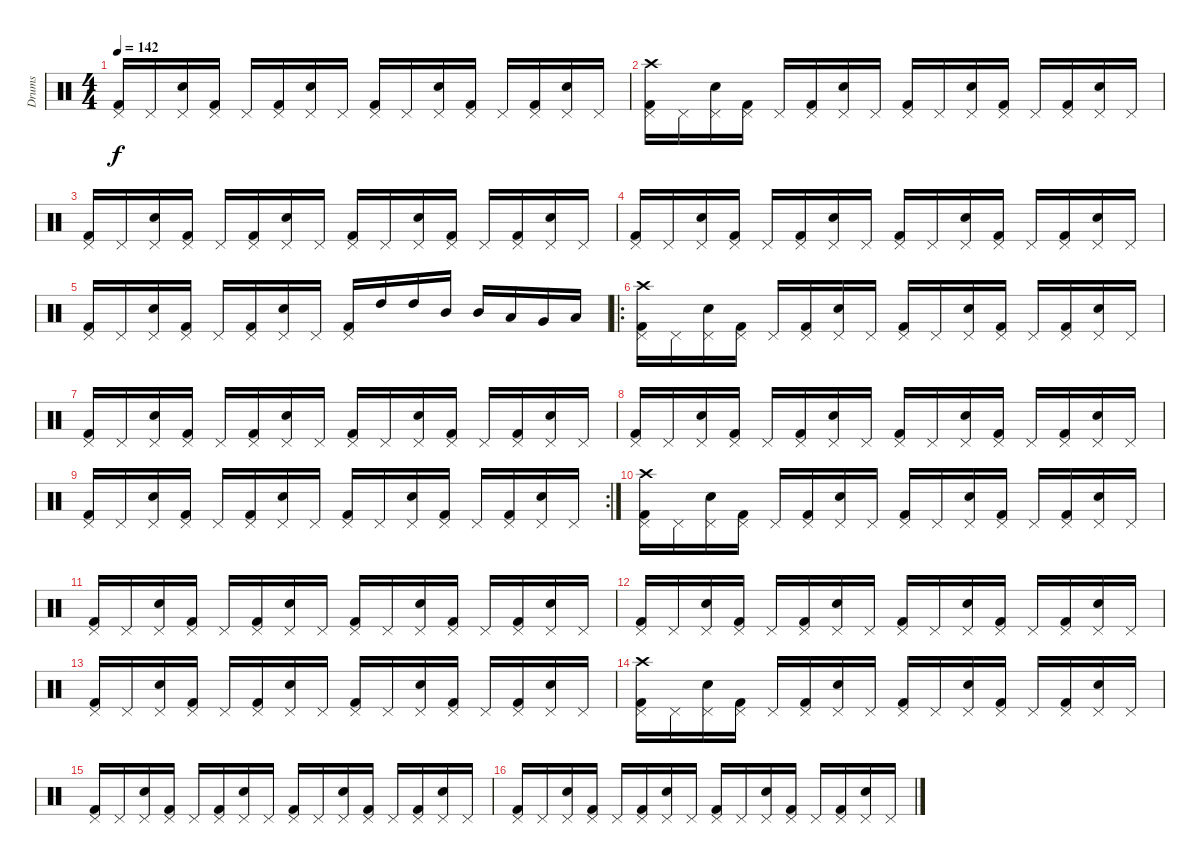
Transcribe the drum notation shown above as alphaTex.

\track ("Drums" "Drums") {instrument percussion}
\staff {score}
\articulation defaults
\ts (4 4)
\tempo 142
\clef neutral
\ks c
("Kick (hit) 2" "Pedal Hi-Hat (hit)").16{dy f} "Pedal Hi-Hat (hit)".16 ("Snare (hit) 2" "Pedal Hi-Hat (hit)").16 ("Kick (hit) 2" "Pedal Hi-Hat (hit)").16 "Pedal Hi-Hat (hit)".16 ("Kick (hit) 2" "Pedal Hi-Hat (hit)").16 ("Snare (hit) 2" "Pedal Hi-Hat (hit)").16 "Pedal Hi-Hat (hit)".16 ("Kick (hit) 2" "Pedal Hi-Hat (hit)").16 "Pedal Hi-Hat (hit)".16 ("Snare (hit) 2" "Pedal Hi-Hat (hit)").16 ("Kick (hit) 2" "Pedal Hi-Hat (hit)").16 "Pedal Hi-Hat (hit)".16 ("Kick (hit) 2" "Pedal Hi-Hat (hit)").16 ("Snare (hit) 2" "Pedal Hi-Hat (hit)").16 "Pedal Hi-Hat (hit)".16 |
("Kick (hit) 2" "Pedal Hi-Hat (hit)" "Crash high (hit)").16 "Pedal Hi-Hat (hit)".16 ("Snare (hit) 2" "Pedal Hi-Hat (hit)").16 ("Kick (hit) 2" "Pedal Hi-Hat (hit)").16 "Pedal Hi-Hat (hit)".16 ("Kick (hit) 2" "Pedal Hi-Hat (hit)").16 ("Snare (hit) 2" "Pedal Hi-Hat (hit)").16 "Pedal Hi-Hat (hit)".16 ("Kick (hit) 2" "Pedal Hi-Hat (hit)").16 "Pedal Hi-Hat (hit)".16 ("Snare (hit) 2" "Pedal Hi-Hat (hit)").16 ("Kick (hit) 2" "Pedal Hi-Hat (hit)").16 "Pedal Hi-Hat (hit)".16 ("Kick (hit) 2" "Pedal Hi-Hat (hit)").16 ("Snare (hit) 2" "Pedal Hi-Hat (hit)").16 "Pedal Hi-Hat (hit)".16 |
("Kick (hit) 2" "Pedal Hi-Hat (hit)").16 "Pedal Hi-Hat (hit)".16 ("Snare (hit) 2" "Pedal Hi-Hat (hit)").16 ("Kick (hit) 2" "Pedal Hi-Hat (hit)").16 "Pedal Hi-Hat (hit)".16 ("Kick (hit) 2" "Pedal Hi-Hat (hit)").16 ("Snare (hit) 2" "Pedal Hi-Hat (hit)").16 "Pedal Hi-Hat (hit)".16 ("Kick (hit) 2" "Pedal Hi-Hat (hit)").16 "Pedal Hi-Hat (hit)".16 ("Snare (hit) 2" "Pedal Hi-Hat (hit)").16 ("Kick (hit) 2" "Pedal Hi-Hat (hit)").16 "Pedal Hi-Hat (hit)".16 ("Kick (hit) 2" "Pedal Hi-Hat (hit)").16 ("Snare (hit) 2" "Pedal Hi-Hat (hit)").16 "Pedal Hi-Hat (hit)".16 |
("Kick (hit) 2" "Pedal Hi-Hat (hit)").16 "Pedal Hi-Hat (hit)".16 ("Snare (hit) 2" "Pedal Hi-Hat (hit)").16 ("Kick (hit) 2" "Pedal Hi-Hat (hit)").16 "Pedal Hi-Hat (hit)".16 ("Kick (hit) 2" "Pedal Hi-Hat (hit)").16 ("Snare (hit) 2" "Pedal Hi-Hat (hit)").16 "Pedal Hi-Hat (hit)".16 ("Kick (hit) 2" "Pedal Hi-Hat (hit)").16 "Pedal Hi-Hat (hit)".16 ("Snare (hit) 2" "Pedal Hi-Hat (hit)").16 ("Kick (hit) 2" "Pedal Hi-Hat (hit)").16 "Pedal Hi-Hat (hit)".16 ("Kick (hit) 2" "Pedal Hi-Hat (hit)").16 ("Snare (hit) 2" "Pedal Hi-Hat (hit)").16 "Pedal Hi-Hat (hit)".16 |
("Kick (hit) 2" "Pedal Hi-Hat (hit)").16 "Pedal Hi-Hat (hit)".16 ("Snare (hit) 2" "Pedal Hi-Hat (hit)").16 ("Kick (hit) 2" "Pedal Hi-Hat (hit)").16 "Pedal Hi-Hat (hit)".16 ("Kick (hit) 2" "Pedal Hi-Hat (hit)").16 ("Snare (hit) 2" "Pedal Hi-Hat (hit)").16 "Pedal Hi-Hat (hit)".16 ("Kick (hit) 2" "Pedal Hi-Hat (hit)").16 "High Tom (hit)".16 "High Tom (hit)".16 "Mid Tom (hit)".16 "Mid Tom (hit)".16 "Low Tom (hit)".16 "Very Low Tom (hit)".16 "Low Floor Tom (hit)".16 |
\ro
("Kick (hit) 2" "Pedal Hi-Hat (hit)" "Crash high (hit)").16 "Pedal Hi-Hat (hit)".16 ("Snare (hit) 2" "Pedal Hi-Hat (hit)").16 ("Kick (hit) 2" "Pedal Hi-Hat (hit)").16 "Pedal Hi-Hat (hit)".16 ("Kick (hit) 2" "Pedal Hi-Hat (hit)").16 ("Snare (hit) 2" "Pedal Hi-Hat (hit)").16 "Pedal Hi-Hat (hit)".16 ("Kick (hit) 2" "Pedal Hi-Hat (hit)").16 "Pedal Hi-Hat (hit)".16 ("Snare (hit) 2" "Pedal Hi-Hat (hit)").16 ("Kick (hit) 2" "Pedal Hi-Hat (hit)").16 "Pedal Hi-Hat (hit)".16 ("Kick (hit) 2" "Pedal Hi-Hat (hit)").16 ("Snare (hit) 2" "Pedal Hi-Hat (hit)").16 "Pedal Hi-Hat (hit)".16 |
("Kick (hit) 2" "Pedal Hi-Hat (hit)").16 "Pedal Hi-Hat (hit)".16 ("Snare (hit) 2" "Pedal Hi-Hat (hit)").16 ("Kick (hit) 2" "Pedal Hi-Hat (hit)").16 "Pedal Hi-Hat (hit)".16 ("Kick (hit) 2" "Pedal Hi-Hat (hit)").16 ("Snare (hit) 2" "Pedal Hi-Hat (hit)").16 "Pedal Hi-Hat (hit)".16 ("Kick (hit) 2" "Pedal Hi-Hat (hit)").16 "Pedal Hi-Hat (hit)".16 ("Snare (hit) 2" "Pedal Hi-Hat (hit)").16 ("Kick (hit) 2" "Pedal Hi-Hat (hit)").16 "Pedal Hi-Hat (hit)".16 ("Kick (hit) 2" "Pedal Hi-Hat (hit)").16 ("Snare (hit) 2" "Pedal Hi-Hat (hit)").16 "Pedal Hi-Hat (hit)".16 |
("Kick (hit) 2" "Pedal Hi-Hat (hit)").16 "Pedal Hi-Hat (hit)".16 ("Snare (hit) 2" "Pedal Hi-Hat (hit)").16 ("Kick (hit) 2" "Pedal Hi-Hat (hit)").16 "Pedal Hi-Hat (hit)".16 ("Kick (hit) 2" "Pedal Hi-Hat (hit)").16 ("Snare (hit) 2" "Pedal Hi-Hat (hit)").16 "Pedal Hi-Hat (hit)".16 ("Kick (hit) 2" "Pedal Hi-Hat (hit)").16 "Pedal Hi-Hat (hit)".16 ("Snare (hit) 2" "Pedal Hi-Hat (hit)").16 ("Kick (hit) 2" "Pedal Hi-Hat (hit)").16 "Pedal Hi-Hat (hit)".16 ("Kick (hit) 2" "Pedal Hi-Hat (hit)").16 ("Snare (hit) 2" "Pedal Hi-Hat (hit)").16 "Pedal Hi-Hat (hit)".16 |
\rc 2
("Kick (hit) 2" "Pedal Hi-Hat (hit)").16 "Pedal Hi-Hat (hit)".16 ("Snare (hit) 2" "Pedal Hi-Hat (hit)").16 ("Kick (hit) 2" "Pedal Hi-Hat (hit)").16 "Pedal Hi-Hat (hit)".16 ("Kick (hit) 2" "Pedal Hi-Hat (hit)").16 ("Snare (hit) 2" "Pedal Hi-Hat (hit)").16 "Pedal Hi-Hat (hit)".16 ("Kick (hit) 2" "Pedal Hi-Hat (hit)").16 "Pedal Hi-Hat (hit)".16 ("Snare (hit) 2" "Pedal Hi-Hat (hit)").16 ("Kick (hit) 2" "Pedal Hi-Hat (hit)").16 "Pedal Hi-Hat (hit)".16 ("Kick (hit) 2" "Pedal Hi-Hat (hit)").16 ("Snare (hit) 2" "Pedal Hi-Hat (hit)").16 "Pedal Hi-Hat (hit)".16 |
("Kick (hit) 2" "Pedal Hi-Hat (hit)" "Crash high (hit)").16 "Pedal Hi-Hat (hit)".16 ("Snare (hit) 2" "Pedal Hi-Hat (hit)").16 ("Kick (hit) 2" "Pedal Hi-Hat (hit)").16 "Pedal Hi-Hat (hit)".16 ("Kick (hit) 2" "Pedal Hi-Hat (hit)").16 ("Snare (hit) 2" "Pedal Hi-Hat (hit)").16 "Pedal Hi-Hat (hit)".16 ("Kick (hit) 2" "Pedal Hi-Hat (hit)").16 "Pedal Hi-Hat (hit)".16 ("Snare (hit) 2" "Pedal Hi-Hat (hit)").16 ("Kick (hit) 2" "Pedal Hi-Hat (hit)").16 "Pedal Hi-Hat (hit)".16 ("Kick (hit) 2" "Pedal Hi-Hat (hit)").16 ("Snare (hit) 2" "Pedal Hi-Hat (hit)").16 "Pedal Hi-Hat (hit)".16 |
("Kick (hit) 2" "Pedal Hi-Hat (hit)").16 "Pedal Hi-Hat (hit)".16 ("Snare (hit) 2" "Pedal Hi-Hat (hit)").16 ("Kick (hit) 2" "Pedal Hi-Hat (hit)").16 "Pedal Hi-Hat (hit)".16 ("Kick (hit) 2" "Pedal Hi-Hat (hit)").16 ("Snare (hit) 2" "Pedal Hi-Hat (hit)").16 "Pedal Hi-Hat (hit)".16 ("Kick (hit) 2" "Pedal Hi-Hat (hit)").16 "Pedal Hi-Hat (hit)".16 ("Snare (hit) 2" "Pedal Hi-Hat (hit)").16 ("Kick (hit) 2" "Pedal Hi-Hat (hit)").16 "Pedal Hi-Hat (hit)".16 ("Kick (hit) 2" "Pedal Hi-Hat (hit)").16 ("Snare (hit) 2" "Pedal Hi-Hat (hit)").16 "Pedal Hi-Hat (hit)".16 |
("Kick (hit) 2" "Pedal Hi-Hat (hit)").16 "Pedal Hi-Hat (hit)".16 ("Snare (hit) 2" "Pedal Hi-Hat (hit)").16 ("Kick (hit) 2" "Pedal Hi-Hat (hit)").16 "Pedal Hi-Hat (hit)".16 ("Kick (hit) 2" "Pedal Hi-Hat (hit)").16 ("Snare (hit) 2" "Pedal Hi-Hat (hit)").16 "Pedal Hi-Hat (hit)".16 ("Kick (hit) 2" "Pedal Hi-Hat (hit)").16 "Pedal Hi-Hat (hit)".16 ("Snare (hit) 2" "Pedal Hi-Hat (hit)").16 ("Kick (hit) 2" "Pedal Hi-Hat (hit)").16 "Pedal Hi-Hat (hit)".16 ("Kick (hit) 2" "Pedal Hi-Hat (hit)").16 ("Snare (hit) 2" "Pedal Hi-Hat (hit)").16 "Pedal Hi-Hat (hit)".16 |
("Kick (hit) 2" "Pedal Hi-Hat (hit)").16 "Pedal Hi-Hat (hit)".16 ("Snare (hit) 2" "Pedal Hi-Hat (hit)").16 ("Kick (hit) 2" "Pedal Hi-Hat (hit)").16 "Pedal Hi-Hat (hit)".16 ("Kick (hit) 2" "Pedal Hi-Hat (hit)").16 ("Snare (hit) 2" "Pedal Hi-Hat (hit)").16 "Pedal Hi-Hat (hit)".16 ("Kick (hit) 2" "Pedal Hi-Hat (hit)").16 "Pedal Hi-Hat (hit)".16 ("Snare (hit) 2" "Pedal Hi-Hat (hit)").16 ("Kick (hit) 2" "Pedal Hi-Hat (hit)").16 "Pedal Hi-Hat (hit)".16 ("Kick (hit) 2" "Pedal Hi-Hat (hit)").16 ("Snare (hit) 2" "Pedal Hi-Hat (hit)").16 "Pedal Hi-Hat (hit)".16 |
("Kick (hit) 2" "Pedal Hi-Hat (hit)" "Crash high (hit)").16 "Pedal Hi-Hat (hit)".16 ("Snare (hit) 2" "Pedal Hi-Hat (hit)").16 ("Kick (hit) 2" "Pedal Hi-Hat (hit)").16 "Pedal Hi-Hat (hit)".16 ("Kick (hit) 2" "Pedal Hi-Hat (hit)").16 ("Snare (hit) 2" "Pedal Hi-Hat (hit)").16 "Pedal Hi-Hat (hit)".16 ("Kick (hit) 2" "Pedal Hi-Hat (hit)").16 "Pedal Hi-Hat (hit)".16 ("Snare (hit) 2" "Pedal Hi-Hat (hit)").16 ("Kick (hit) 2" "Pedal Hi-Hat (hit)").16 "Pedal Hi-Hat (hit)".16 ("Kick (hit) 2" "Pedal Hi-Hat (hit)").16 ("Snare (hit) 2" "Pedal Hi-Hat (hit)").16 "Pedal Hi-Hat (hit)".16 |
("Kick (hit) 2" "Pedal Hi-Hat (hit)").16 "Pedal Hi-Hat (hit)".16 ("Snare (hit) 2" "Pedal Hi-Hat (hit)").16 ("Kick (hit) 2" "Pedal Hi-Hat (hit)").16 "Pedal Hi-Hat (hit)".16 ("Kick (hit) 2" "Pedal Hi-Hat (hit)").16 ("Snare (hit) 2" "Pedal Hi-Hat (hit)").16 "Pedal Hi-Hat (hit)".16 ("Kick (hit) 2" "Pedal Hi-Hat (hit)").16 "Pedal Hi-Hat (hit)".16 ("Snare (hit) 2" "Pedal Hi-Hat (hit)").16 ("Kick (hit) 2" "Pedal Hi-Hat (hit)").16 "Pedal Hi-Hat (hit)".16 ("Kick (hit) 2" "Pedal Hi-Hat (hit)").16 ("Snare (hit) 2" "Pedal Hi-Hat (hit)").16 "Pedal Hi-Hat (hit)".16 |
("Kick (hit) 2" "Pedal Hi-Hat (hit)").16 "Pedal Hi-Hat (hit)".16 ("Snare (hit) 2" "Pedal Hi-Hat (hit)").16 ("Kick (hit) 2" "Pedal Hi-Hat (hit)").16 "Pedal Hi-Hat (hit)".16 ("Kick (hit) 2" "Pedal Hi-Hat (hit)").16 ("Snare (hit) 2" "Pedal Hi-Hat (hit)").16 "Pedal Hi-Hat (hit)".16 ("Kick (hit) 2" "Pedal Hi-Hat (hit)").16 "Pedal Hi-Hat (hit)".16 ("Snare (hit) 2" "Pedal Hi-Hat (hit)").16 ("Kick (hit) 2" "Pedal Hi-Hat (hit)").16 "Pedal Hi-Hat (hit)".16 ("Kick (hit) 2" "Pedal Hi-Hat (hit)").16 ("Snare (hit) 2" "Pedal Hi-Hat (hit)").16 "Pedal Hi-Hat (hit)".16
